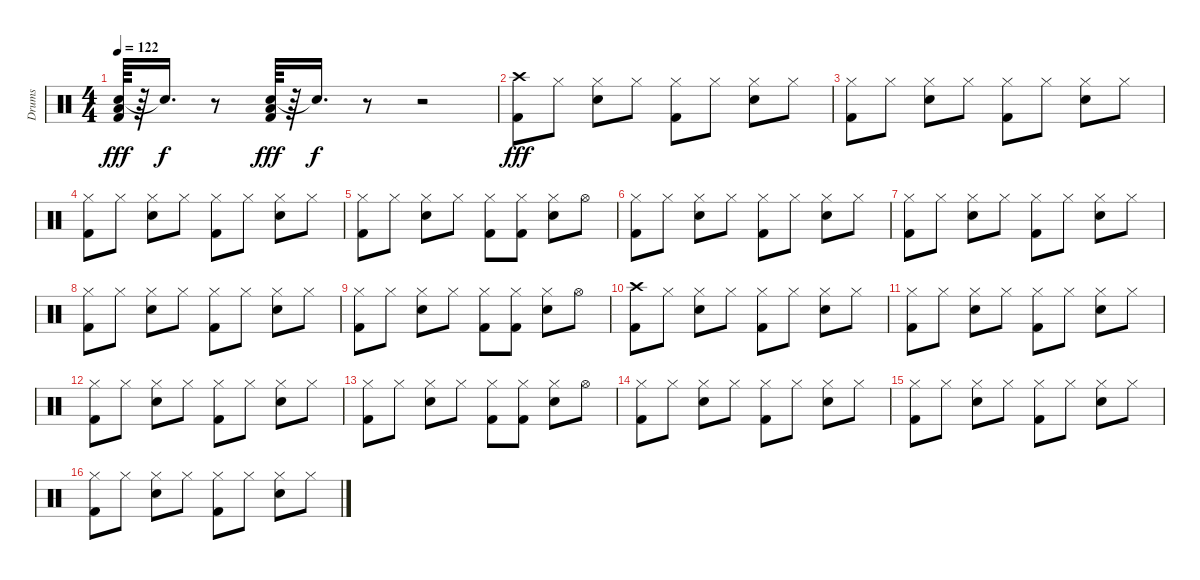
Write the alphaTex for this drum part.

\track ("Drums" "Drums") {instrument percussion}
\staff {score}
\articulation defaults
\ts (4 4)
\tempo 122
\clef neutral
\ks c
("Snare (hit) 2" "Low Floor Tom (hit)" "Kick (hit) 2").64{dy fff} r.64 "Snare (hit)"{t}.16{d dy f} r.8 ("Snare (hit) 2" "Low Floor Tom (hit)" "Kick (hit) 2").64{dy fff} r.64 "Snare (hit)"{t}.16{d dy f} r.8 r.2 |
("Crash high (hit)" "Kick (hit) 2").8{dy fff} "Hi-Hat (closed)".8 ("Hi-Hat (closed)" "Snare (hit) 2").8 "Hi-Hat (closed)".8 ("Hi-Hat (closed)" "Kick (hit) 2").8 "Hi-Hat (closed)".8 ("Hi-Hat (closed)" "Snare (hit) 2").8 "Hi-Hat (closed)".8 |
("Hi-Hat (closed)" "Kick (hit) 2").8 "Hi-Hat (closed)".8 ("Hi-Hat (closed)" "Snare (hit) 2").8 "Hi-Hat (closed)".8 ("Hi-Hat (closed)" "Kick (hit) 2").8 "Hi-Hat (closed)".8 ("Hi-Hat (closed)" "Snare (hit) 2").8 "Hi-Hat (closed)".8 |
("Hi-Hat (closed)" "Kick (hit) 2").8 "Hi-Hat (closed)".8 ("Hi-Hat (closed)" "Snare (hit) 2").8 "Hi-Hat (closed)".8 ("Hi-Hat (closed)" "Kick (hit) 2").8 "Hi-Hat (closed)".8 ("Hi-Hat (closed)" "Snare (hit) 2").8 "Hi-Hat (closed)".8 |
("Hi-Hat (closed)" "Kick (hit) 2").8 "Hi-Hat (closed)".8 ("Hi-Hat (closed)" "Snare (hit) 2").8 "Hi-Hat (closed)".8 ("Hi-Hat (closed)" "Kick (hit) 2").8 ("Hi-Hat (closed)" "Kick (hit) 2").8 ("Hi-Hat (closed)" "Snare (hit) 2").8 "Hi-Hat (open)".8 |
("Hi-Hat (closed)" "Kick (hit) 2").8 "Hi-Hat (closed)".8 ("Hi-Hat (closed)" "Snare (hit) 2").8 "Hi-Hat (closed)".8 ("Hi-Hat (closed)" "Kick (hit) 2").8 "Hi-Hat (closed)".8 ("Hi-Hat (closed)" "Snare (hit) 2").8 "Hi-Hat (closed)".8 |
("Hi-Hat (closed)" "Kick (hit) 2").8 "Hi-Hat (closed)".8 ("Hi-Hat (closed)" "Snare (hit) 2").8 "Hi-Hat (closed)".8 ("Hi-Hat (closed)" "Kick (hit) 2").8 "Hi-Hat (closed)".8 ("Hi-Hat (closed)" "Snare (hit) 2").8 "Hi-Hat (closed)".8 |
("Hi-Hat (closed)" "Kick (hit) 2").8 "Hi-Hat (closed)".8 ("Hi-Hat (closed)" "Snare (hit) 2").8 "Hi-Hat (closed)".8 ("Hi-Hat (closed)" "Kick (hit) 2").8 "Hi-Hat (closed)".8 ("Hi-Hat (closed)" "Snare (hit) 2").8 "Hi-Hat (closed)".8 |
("Hi-Hat (closed)" "Kick (hit) 2").8 "Hi-Hat (closed)".8 ("Hi-Hat (closed)" "Snare (hit) 2").8 "Hi-Hat (closed)".8 ("Hi-Hat (closed)" "Kick (hit) 2").8 ("Hi-Hat (closed)" "Kick (hit) 2").8 ("Hi-Hat (closed)" "Snare (hit) 2").8 "Hi-Hat (open)".8 |
("Crash high (hit)" "Kick (hit) 2").8 "Hi-Hat (closed)".8 ("Hi-Hat (closed)" "Snare (hit) 2").8 "Hi-Hat (closed)".8 ("Hi-Hat (closed)" "Kick (hit) 2").8 "Hi-Hat (closed)".8 ("Hi-Hat (closed)" "Snare (hit) 2").8 "Hi-Hat (closed)".8 |
("Hi-Hat (closed)" "Kick (hit) 2").8 "Hi-Hat (closed)".8 ("Hi-Hat (closed)" "Snare (hit) 2").8 "Hi-Hat (closed)".8 ("Hi-Hat (closed)" "Kick (hit) 2").8 "Hi-Hat (closed)".8 ("Hi-Hat (closed)" "Snare (hit) 2").8 "Hi-Hat (closed)".8 |
("Hi-Hat (closed)" "Kick (hit) 2").8 "Hi-Hat (closed)".8 ("Hi-Hat (closed)" "Snare (hit) 2").8 "Hi-Hat (closed)".8 ("Hi-Hat (closed)" "Kick (hit) 2").8 "Hi-Hat (closed)".8 ("Hi-Hat (closed)" "Snare (hit) 2").8 "Hi-Hat (closed)".8 |
("Hi-Hat (closed)" "Kick (hit) 2").8 "Hi-Hat (closed)".8 ("Hi-Hat (closed)" "Snare (hit) 2").8 "Hi-Hat (closed)".8 ("Hi-Hat (closed)" "Kick (hit) 2").8 ("Hi-Hat (closed)" "Kick (hit) 2").8 ("Hi-Hat (closed)" "Snare (hit) 2").8 "Hi-Hat (open)".8 |
("Hi-Hat (closed)" "Kick (hit) 2").8 "Hi-Hat (closed)".8 ("Hi-Hat (closed)" "Snare (hit) 2").8 "Hi-Hat (closed)".8 ("Hi-Hat (closed)" "Kick (hit) 2").8 "Hi-Hat (closed)".8 ("Hi-Hat (closed)" "Snare (hit) 2").8 "Hi-Hat (closed)".8 |
("Hi-Hat (closed)" "Kick (hit) 2").8 "Hi-Hat (closed)".8 ("Hi-Hat (closed)" "Snare (hit) 2").8 "Hi-Hat (closed)".8 ("Hi-Hat (closed)" "Kick (hit) 2").8 "Hi-Hat (closed)".8 ("Hi-Hat (closed)" "Snare (hit) 2").8 "Hi-Hat (closed)".8 |
("Hi-Hat (closed)" "Kick (hit) 2").8 "Hi-Hat (closed)".8 ("Hi-Hat (closed)" "Snare (hit) 2").8 "Hi-Hat (closed)".8 ("Hi-Hat (closed)" "Kick (hit) 2").8 "Hi-Hat (closed)".8 ("Hi-Hat (closed)" "Snare (hit) 2").8 "Hi-Hat (closed)".8
